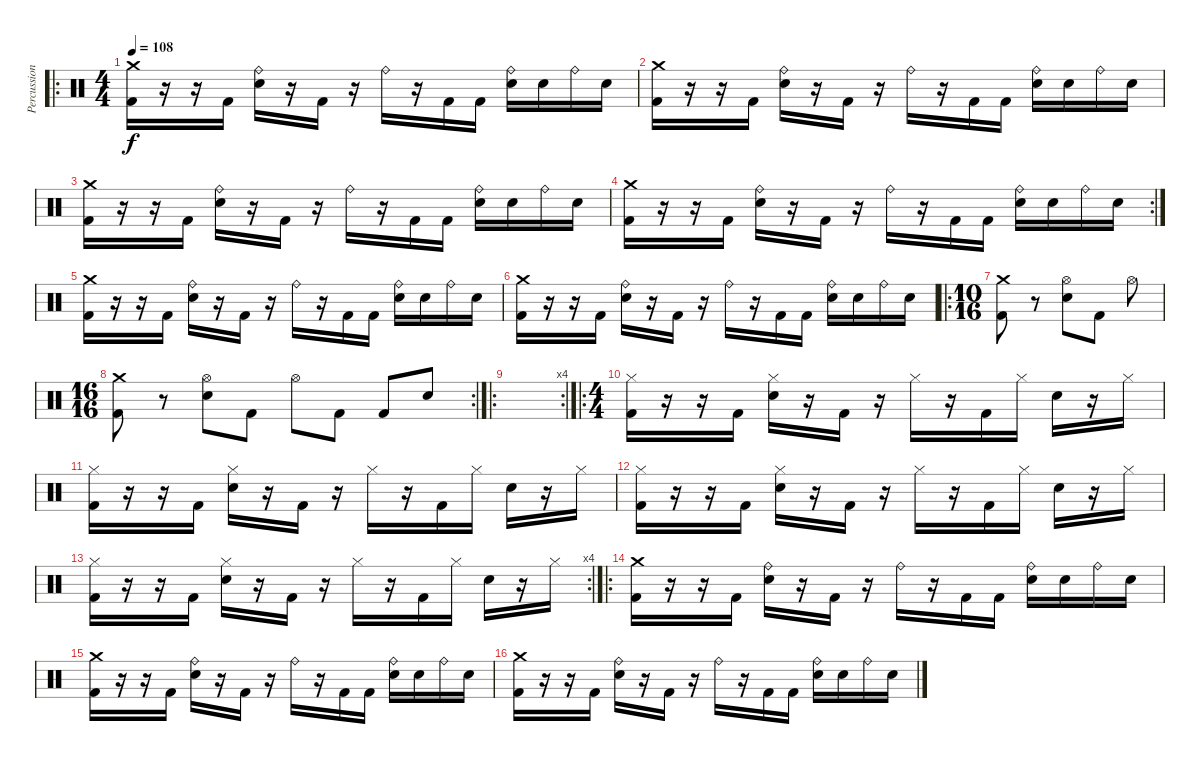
\track ("Percussions" "Percussion") {instrument percussion}
\staff {score}
\articulation defaults
\ro
\ts (4 4)
\tempo 108
\clef neutral
\ks c
("Kick (hit) 2" "Crash medium (hit)").16{dy f} r.16 r.16 "Kick (hit) 2".16 ("Electric Snare (hit)" "Ride (bell)").16 r.16 "Kick (hit) 2".16 r.16 "Ride (bell)".16 r.16 "Kick (hit) 2".16 "Kick (hit) 2".16 ("Electric Snare (hit)" "Ride (bell)").16 "Electric Snare (hit)".16 "Ride (bell)".16 "Electric Snare (hit)".16 |
("Kick (hit) 2" "Crash medium (hit)").16 r.16 r.16 "Kick (hit) 2".16 ("Electric Snare (hit)" "Ride (bell)").16 r.16 "Kick (hit) 2".16 r.16 "Ride (bell)".16 r.16 "Kick (hit) 2".16 "Kick (hit) 2".16 ("Electric Snare (hit)" "Ride (bell)").16 "Electric Snare (hit)".16 "Ride (bell)".16 "Electric Snare (hit)".16 |
("Kick (hit) 2" "Crash medium (hit)").16 r.16 r.16 "Kick (hit) 2".16 ("Electric Snare (hit)" "Ride (bell)").16 r.16 "Kick (hit) 2".16 r.16 "Ride (bell)".16 r.16 "Kick (hit) 2".16 "Kick (hit) 2".16 ("Electric Snare (hit)" "Ride (bell)").16 "Electric Snare (hit)".16 "Ride (bell)".16 "Electric Snare (hit)".16 |
\rc 2
("Kick (hit) 2" "Crash medium (hit)").16 r.16 r.16 "Kick (hit) 2".16 ("Electric Snare (hit)" "Ride (bell)").16 r.16 "Kick (hit) 2".16 r.16 "Ride (bell)".16 r.16 "Kick (hit) 2".16 "Kick (hit) 2".16 ("Electric Snare (hit)" "Ride (bell)").16 "Electric Snare (hit)".16 "Ride (bell)".16 "Electric Snare (hit)".16 |
("Kick (hit) 2" "Crash medium (hit)").16 r.16 r.16 "Kick (hit) 2".16 ("Electric Snare (hit)" "Ride (bell)").16 r.16 "Kick (hit) 2".16 r.16 "Ride (bell)".16 r.16 "Kick (hit) 2".16 "Kick (hit) 2".16 ("Electric Snare (hit)" "Ride (bell)").16 "Electric Snare (hit)".16 "Ride (bell)".16 "Electric Snare (hit)".16 |
("Kick (hit) 2" "Crash medium (hit)").16 r.16 r.16 "Kick (hit) 2".16 ("Electric Snare (hit)" "Ride (bell)").16 r.16 "Kick (hit) 2".16 r.16 "Ride (bell)".16 r.16 "Kick (hit) 2".16 "Kick (hit) 2".16 ("Electric Snare (hit)" "Ride (bell)").16 "Electric Snare (hit)".16 "Ride (bell)".16 "Electric Snare (hit)".16 |
\ro
\ts (10 16)
("Kick (hit) 2" "Crash medium (hit)").8 r.8 ("Electric Snare (hit)" "Hi-Hat (open)").8 "Kick (hit) 2".8 "Hi-Hat (open)".8 |
\rc 2
\ts (16 16)
("Kick (hit) 2" "Crash medium (hit)").8 r.8 ("Electric Snare (hit)" "Hi-Hat (open)").8 "Kick (hit) 2".8 "Hi-Hat (open)".8 "Kick (hit) 2".8 "Kick (hit) 2".8 "Electric Snare (hit)".8 |
\ro
\rc 4
|
\ro
\ts (4 4)
("Kick (hit) 2" "Hi-Hat (closed)").16 r.16 r.16 "Kick (hit) 2".16 ("Electric Snare (hit)" "Hi-Hat (closed)").16 r.16 "Kick (hit) 2".16 r.16 "Hi-Hat (closed)".16 r.16 "Kick (hit) 2".16 "Hi-Hat (closed)".16 "Electric Snare (hit)".16 r.16 "Hi-Hat (closed)".16 |
("Kick (hit) 2" "Hi-Hat (closed)").16 r.16 r.16 "Kick (hit) 2".16 ("Electric Snare (hit)" "Hi-Hat (closed)").16 r.16 "Kick (hit) 2".16 r.16 "Hi-Hat (closed)".16 r.16 "Kick (hit) 2".16 "Hi-Hat (closed)".16 "Electric Snare (hit)".16 r.16 "Hi-Hat (closed)".16 |
("Kick (hit) 2" "Hi-Hat (closed)").16 r.16 r.16 "Kick (hit) 2".16 ("Electric Snare (hit)" "Hi-Hat (closed)").16 r.16 "Kick (hit) 2".16 r.16 "Hi-Hat (closed)".16 r.16 "Kick (hit) 2".16 "Hi-Hat (closed)".16 "Electric Snare (hit)".16 r.16 "Hi-Hat (closed)".16 |
\rc 4
("Kick (hit) 2" "Hi-Hat (closed)").16 r.16 r.16 "Kick (hit) 2".16 ("Electric Snare (hit)" "Hi-Hat (closed)").16 r.16 "Kick (hit) 2".16 r.16 "Hi-Hat (closed)".16 r.16 "Kick (hit) 2".16 "Hi-Hat (closed)".16 "Electric Snare (hit)".16 r.16 "Hi-Hat (closed)".16 |
\ro
("Kick (hit) 2" "Crash medium (hit)").16 r.16 r.16 "Kick (hit) 2".16 ("Electric Snare (hit)" "Ride (bell)").16 r.16 "Kick (hit) 2".16 r.16 "Ride (bell)".16 r.16 "Kick (hit) 2".16 "Kick (hit) 2".16 ("Electric Snare (hit)" "Ride (bell)").16 "Electric Snare (hit)".16 "Ride (bell)".16 "Electric Snare (hit)".16 |
("Kick (hit) 2" "Crash medium (hit)").16 r.16 r.16 "Kick (hit) 2".16 ("Electric Snare (hit)" "Ride (bell)").16 r.16 "Kick (hit) 2".16 r.16 "Ride (bell)".16 r.16 "Kick (hit) 2".16 "Kick (hit) 2".16 ("Electric Snare (hit)" "Ride (bell)").16 "Electric Snare (hit)".16 "Ride (bell)".16 "Electric Snare (hit)".16 |
("Kick (hit) 2" "Crash medium (hit)").16 r.16 r.16 "Kick (hit) 2".16 ("Electric Snare (hit)" "Ride (bell)").16 r.16 "Kick (hit) 2".16 r.16 "Ride (bell)".16 r.16 "Kick (hit) 2".16 "Kick (hit) 2".16 ("Electric Snare (hit)" "Ride (bell)").16 "Electric Snare (hit)".16 "Ride (bell)".16 "Electric Snare (hit)".16
